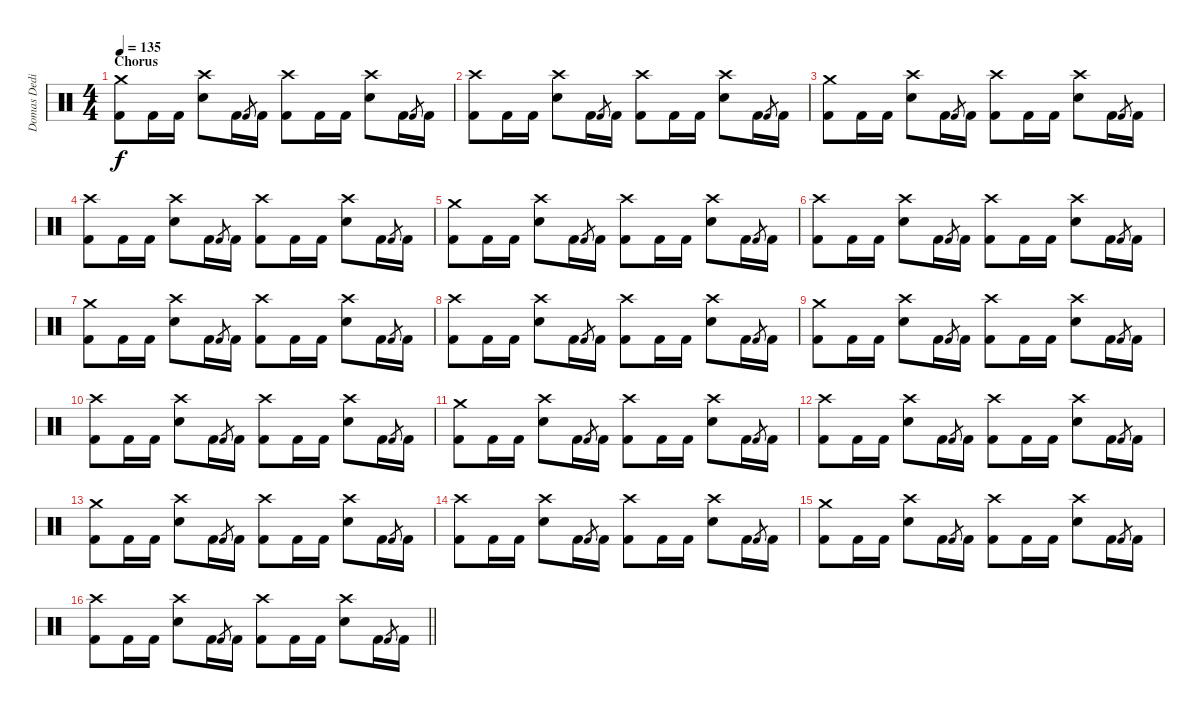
\track ("Domas Dedinas" "Domas Dedi") {instrument percussion}
\staff {score}
\articulation defaults
\ts (4 4)
\section ("" "Chorus")
\tempo 135
\clef neutral
\ks c
("Crash medium (hit)" "Kick (hit) 2").8{dy f} "Kick (hit) 2".16 "Kick (hit) 2".16 ("Crash high (hit)" "Snare (hit) 2").8 "Kick (hit) 2".16 "Kick (hit) 2".8{gr} "Kick (hit) 2".16 ("Crash high (hit)" "Kick (hit) 2").8 "Kick (hit) 2".16 "Kick (hit) 2".16 ("Crash high (hit)" "Snare (hit) 2").8 "Kick (hit) 2".16 "Kick (hit) 2".8{gr} "Kick (hit) 2".16 |
("Crash high (hit)" "Kick (hit) 2").8 "Kick (hit) 2".16 "Kick (hit) 2".16 ("Crash high (hit)" "Snare (hit) 2").8 "Kick (hit) 2".16 "Kick (hit) 2".8{gr} "Kick (hit) 2".16 ("Crash high (hit)" "Kick (hit) 2").8 "Kick (hit) 2".16 "Kick (hit) 2".16 ("Crash high (hit)" "Snare (hit) 2").8 "Kick (hit) 2".16 "Kick (hit) 2".8{gr} "Kick (hit) 2".16 |
("Crash medium (hit)" "Kick (hit) 2").8 "Kick (hit) 2".16 "Kick (hit) 2".16 ("Crash high (hit)" "Snare (hit) 2").8 "Kick (hit) 2".16 "Kick (hit) 2".8{gr} "Kick (hit) 2".16 ("Crash high (hit)" "Kick (hit) 2").8 "Kick (hit) 2".16 "Kick (hit) 2".16 ("Crash high (hit)" "Snare (hit) 2").8 "Kick (hit) 2".16 "Kick (hit) 2".8{gr} "Kick (hit) 2".16 |
("Crash high (hit)" "Kick (hit) 2").8 "Kick (hit) 2".16 "Kick (hit) 2".16 ("Crash high (hit)" "Snare (hit) 2").8 "Kick (hit) 2".16 "Kick (hit) 2".8{gr} "Kick (hit) 2".16 ("Crash high (hit)" "Kick (hit) 2").8 "Kick (hit) 2".16 "Kick (hit) 2".16 ("Crash high (hit)" "Snare (hit) 2").8 "Kick (hit) 2".16 "Kick (hit) 2".8{gr} "Kick (hit) 2".16 |
("Crash medium (hit)" "Kick (hit) 2").8 "Kick (hit) 2".16 "Kick (hit) 2".16 ("Crash high (hit)" "Snare (hit) 2").8 "Kick (hit) 2".16 "Kick (hit) 2".8{gr} "Kick (hit) 2".16 ("Crash high (hit)" "Kick (hit) 2").8 "Kick (hit) 2".16 "Kick (hit) 2".16 ("Crash high (hit)" "Snare (hit) 2").8 "Kick (hit) 2".16 "Kick (hit) 2".8{gr} "Kick (hit) 2".16 |
("Crash high (hit)" "Kick (hit) 2").8 "Kick (hit) 2".16 "Kick (hit) 2".16 ("Crash high (hit)" "Snare (hit) 2").8 "Kick (hit) 2".16 "Kick (hit) 2".8{gr} "Kick (hit) 2".16 ("Crash high (hit)" "Kick (hit) 2").8 "Kick (hit) 2".16 "Kick (hit) 2".16 ("Crash high (hit)" "Snare (hit) 2").8 "Kick (hit) 2".16 "Kick (hit) 2".8{gr} "Kick (hit) 2".16 |
("Crash medium (hit)" "Kick (hit) 2").8 "Kick (hit) 2".16 "Kick (hit) 2".16 ("Crash high (hit)" "Snare (hit) 2").8 "Kick (hit) 2".16 "Kick (hit) 2".8{gr} "Kick (hit) 2".16 ("Crash high (hit)" "Kick (hit) 2").8 "Kick (hit) 2".16 "Kick (hit) 2".16 ("Crash high (hit)" "Snare (hit) 2").8 "Kick (hit) 2".16 "Kick (hit) 2".8{gr} "Kick (hit) 2".16 |
("Crash high (hit)" "Kick (hit) 2").8 "Kick (hit) 2".16 "Kick (hit) 2".16 ("Crash high (hit)" "Snare (hit) 2").8 "Kick (hit) 2".16 "Kick (hit) 2".8{gr} "Kick (hit) 2".16 ("Crash high (hit)" "Kick (hit) 2").8 "Kick (hit) 2".16 "Kick (hit) 2".16 ("Crash high (hit)" "Snare (hit) 2").8 "Kick (hit) 2".16 "Kick (hit) 2".8{gr} "Kick (hit) 2".16 |
("Crash medium (hit)" "Kick (hit) 2").8 "Kick (hit) 2".16 "Kick (hit) 2".16 ("Crash high (hit)" "Snare (hit) 2").8 "Kick (hit) 2".16 "Kick (hit) 2".8{gr} "Kick (hit) 2".16 ("Crash high (hit)" "Kick (hit) 2").8 "Kick (hit) 2".16 "Kick (hit) 2".16 ("Crash high (hit)" "Snare (hit) 2").8 "Kick (hit) 2".16 "Kick (hit) 2".8{gr} "Kick (hit) 2".16 |
("Crash high (hit)" "Kick (hit) 2").8 "Kick (hit) 2".16 "Kick (hit) 2".16 ("Crash high (hit)" "Snare (hit) 2").8 "Kick (hit) 2".16 "Kick (hit) 2".8{gr} "Kick (hit) 2".16 ("Crash high (hit)" "Kick (hit) 2").8 "Kick (hit) 2".16 "Kick (hit) 2".16 ("Crash high (hit)" "Snare (hit) 2").8 "Kick (hit) 2".16 "Kick (hit) 2".8{gr} "Kick (hit) 2".16 |
("Crash medium (hit)" "Kick (hit) 2").8 "Kick (hit) 2".16 "Kick (hit) 2".16 ("Crash high (hit)" "Snare (hit) 2").8 "Kick (hit) 2".16 "Kick (hit) 2".8{gr} "Kick (hit) 2".16 ("Crash high (hit)" "Kick (hit) 2").8 "Kick (hit) 2".16 "Kick (hit) 2".16 ("Crash high (hit)" "Snare (hit) 2").8 "Kick (hit) 2".16 "Kick (hit) 2".8{gr} "Kick (hit) 2".16 |
("Crash high (hit)" "Kick (hit) 2").8 "Kick (hit) 2".16 "Kick (hit) 2".16 ("Crash high (hit)" "Snare (hit) 2").8 "Kick (hit) 2".16 "Kick (hit) 2".8{gr} "Kick (hit) 2".16 ("Crash high (hit)" "Kick (hit) 2").8 "Kick (hit) 2".16 "Kick (hit) 2".16 ("Crash high (hit)" "Snare (hit) 2").8 "Kick (hit) 2".16 "Kick (hit) 2".8{gr} "Kick (hit) 2".16 |
("Crash medium (hit)" "Kick (hit) 2").8 "Kick (hit) 2".16 "Kick (hit) 2".16 ("Crash high (hit)" "Snare (hit) 2").8 "Kick (hit) 2".16 "Kick (hit) 2".8{gr} "Kick (hit) 2".16 ("Crash high (hit)" "Kick (hit) 2").8 "Kick (hit) 2".16 "Kick (hit) 2".16 ("Crash high (hit)" "Snare (hit) 2").8 "Kick (hit) 2".16 "Kick (hit) 2".8{gr} "Kick (hit) 2".16 |
("Crash high (hit)" "Kick (hit) 2").8 "Kick (hit) 2".16 "Kick (hit) 2".16 ("Crash high (hit)" "Snare (hit) 2").8 "Kick (hit) 2".16 "Kick (hit) 2".8{gr} "Kick (hit) 2".16 ("Crash high (hit)" "Kick (hit) 2").8 "Kick (hit) 2".16 "Kick (hit) 2".16 ("Crash high (hit)" "Snare (hit) 2").8 "Kick (hit) 2".16 "Kick (hit) 2".8{gr} "Kick (hit) 2".16 |
("Crash medium (hit)" "Kick (hit) 2").8 "Kick (hit) 2".16 "Kick (hit) 2".16 ("Crash high (hit)" "Snare (hit) 2").8 "Kick (hit) 2".16 "Kick (hit) 2".8{gr} "Kick (hit) 2".16 ("Crash high (hit)" "Kick (hit) 2").8 "Kick (hit) 2".16 "Kick (hit) 2".16 ("Crash high (hit)" "Snare (hit) 2").8 "Kick (hit) 2".16 "Kick (hit) 2".8{gr} "Kick (hit) 2".16 |
\barLineRight lightlight
("Crash high (hit)" "Kick (hit) 2").8 "Kick (hit) 2".16 "Kick (hit) 2".16 ("Crash high (hit)" "Snare (hit) 2").8 "Kick (hit) 2".16 "Kick (hit) 2".8{gr} "Kick (hit) 2".16 ("Crash high (hit)" "Kick (hit) 2").8 "Kick (hit) 2".16 "Kick (hit) 2".16 ("Crash high (hit)" "Snare (hit) 2").8 "Kick (hit) 2".16 "Kick (hit) 2".8{gr} "Kick (hit) 2".16
